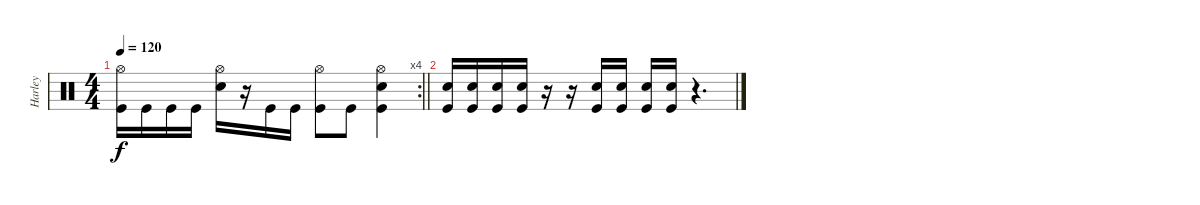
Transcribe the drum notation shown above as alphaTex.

\track ("Harley" "Harley") {instrument percussion}
\staff {score}
\articulation defaults
\rc 4
\ts (4 4)
\tempo 120
\clef neutral
\barLineRight lightlight
\ks c
("Hi-Hat (open)" "Kick (hit)").16{dy f} "Kick (hit)".16 "Kick (hit)".16 "Kick (hit)".16 ("Hi-Hat (open)" "Snare (hit) 2").16 r.16 "Kick (hit)".16 "Kick (hit)".16 ("Hi-Hat (open)" "Kick (hit)").8 "Kick (hit)".8 ("Hi-Hat (open)" "Snare (hit) 2" "Kick (hit)").4 |
("Snare (hit) 2" "Kick (hit)").16 ("Snare (hit) 2" "Kick (hit)").16 ("Snare (hit) 2" "Kick (hit)").16 ("Snare (hit) 2" "Kick (hit)").16 r.16 r.16 ("Snare (hit) 2" "Kick (hit)").16 ("Snare (hit) 2" "Kick (hit)").16 ("Snare (hit) 2" "Kick (hit)").16 ("Snare (hit) 2" "Kick (hit)").16 r.4{d}
